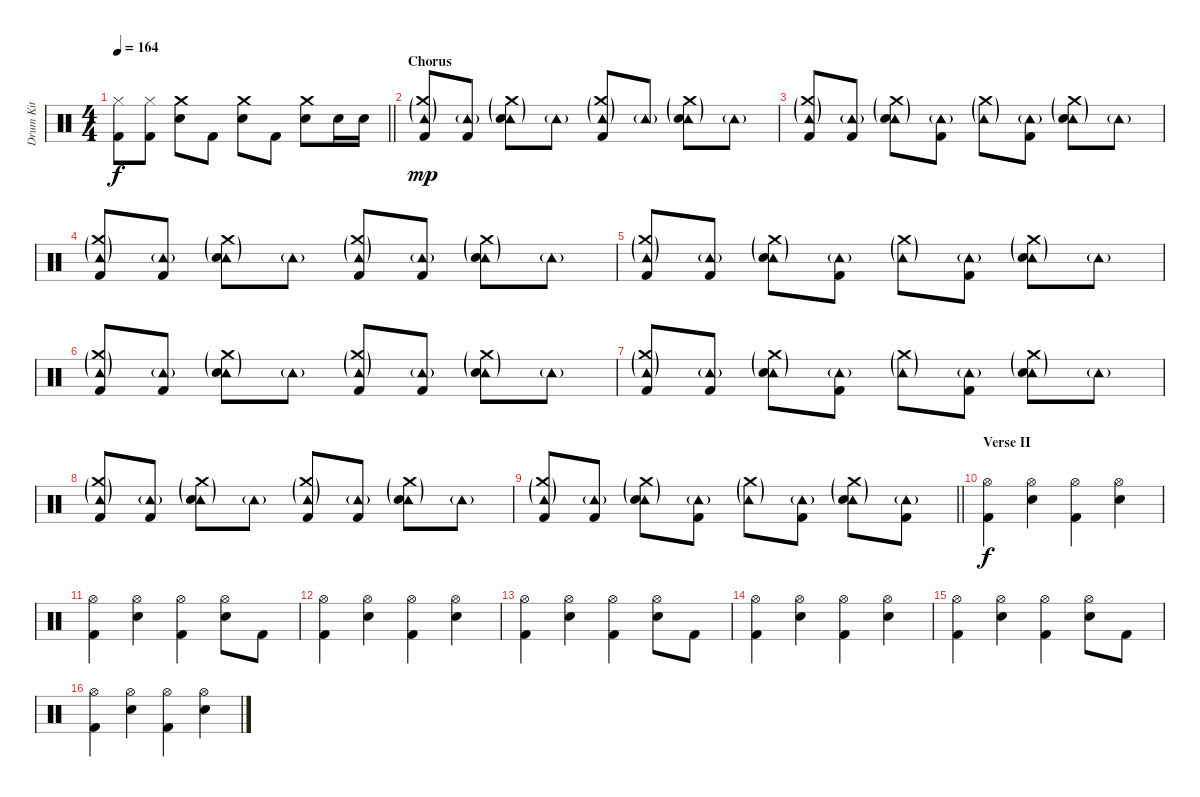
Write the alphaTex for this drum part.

\track ("Drum Kit" "Drum Kit") {instrument percussion}
\staff {score}
\articulation defaults
\ts (4 4)
\tempo 164
\clef neutral
\barLineRight lightlight
\ks c
("Hi-Hat (closed)" "Kick (hit) 2").8{dy f} ("Hi-Hat (closed)" "Kick (hit) 2").8 ("Crash medium (hit)" "Electric Snare (hit)").8 "Kick (hit) 2".8 ("Crash medium (hit)" "Electric Snare (hit)").8 "Kick (hit) 2".8 ("Crash medium (hit)" "Electric Snare (hit)").8 "Electric Snare (hit)".16 "Electric Snare (hit)".16 |
\section ("" "Chorus")
("Crash medium (hit)"{g} "Tambourine (hit)"{g} "Kick (hit) 2").8{dy mp} ("Tambourine (hit)"{g} "Kick (hit) 2").8 ("Crash medium (hit)"{g} "Tambourine (hit)"{g} "Electric Snare (hit)").8 "Tambourine (hit)"{g}.8 ("Crash medium (hit)"{g} "Tambourine (hit)"{g} "Kick (hit) 2").8 "Tambourine (hit)"{g}.8 ("Crash medium (hit)"{g} "Tambourine (hit)"{g} "Electric Snare (hit)").8 "Tambourine (hit)"{g}.8 |
("Crash medium (hit)"{g} "Tambourine (hit)"{g} "Kick (hit) 2").8 ("Tambourine (hit)"{g} "Kick (hit) 2").8 ("Crash medium (hit)"{g} "Tambourine (hit)"{g} "Electric Snare (hit)").8 ("Tambourine (hit)"{g} "Kick (hit) 2").8 ("Crash medium (hit)"{g} "Tambourine (hit)"{g}).8 ("Tambourine (hit)"{g} "Kick (hit) 2").8 ("Crash medium (hit)"{g} "Tambourine (hit)"{g} "Electric Snare (hit)").8 "Tambourine (hit)"{g}.8 |
("Crash medium (hit)"{g} "Tambourine (hit)"{g} "Kick (hit) 2").8 ("Tambourine (hit)"{g} "Kick (hit) 2").8 ("Crash medium (hit)"{g} "Tambourine (hit)"{g} "Electric Snare (hit)").8 "Tambourine (hit)"{g}.8 ("Crash medium (hit)"{g} "Tambourine (hit)"{g} "Kick (hit) 2").8 ("Tambourine (hit)"{g} "Kick (hit) 2").8 ("Crash medium (hit)"{g} "Tambourine (hit)"{g} "Electric Snare (hit)").8 "Tambourine (hit)"{g}.8 |
("Crash medium (hit)"{g} "Tambourine (hit)"{g} "Kick (hit) 2").8 ("Tambourine (hit)"{g} "Kick (hit) 2").8 ("Crash medium (hit)"{g} "Tambourine (hit)"{g} "Electric Snare (hit)").8 ("Tambourine (hit)"{g} "Kick (hit) 2").8 ("Crash medium (hit)"{g} "Tambourine (hit)"{g}).8 ("Tambourine (hit)"{g} "Kick (hit) 2").8 ("Crash medium (hit)"{g} "Tambourine (hit)"{g} "Electric Snare (hit)").8 "Tambourine (hit)"{g}.8 |
("Crash medium (hit)"{g} "Tambourine (hit)"{g} "Kick (hit) 2").8 ("Tambourine (hit)"{g} "Kick (hit) 2").8 ("Crash medium (hit)"{g} "Tambourine (hit)"{g} "Electric Snare (hit)").8 "Tambourine (hit)"{g}.8 ("Crash medium (hit)"{g} "Tambourine (hit)"{g} "Kick (hit) 2").8 ("Tambourine (hit)"{g} "Kick (hit) 2").8 ("Crash medium (hit)"{g} "Tambourine (hit)"{g} "Electric Snare (hit)").8 "Tambourine (hit)"{g}.8 |
("Crash medium (hit)"{g} "Tambourine (hit)"{g} "Kick (hit) 2").8 ("Tambourine (hit)"{g} "Kick (hit) 2").8 ("Crash medium (hit)"{g} "Tambourine (hit)"{g} "Electric Snare (hit)").8 ("Tambourine (hit)"{g} "Kick (hit) 2").8 ("Crash medium (hit)"{g} "Tambourine (hit)"{g}).8 ("Tambourine (hit)"{g} "Kick (hit) 2").8 ("Crash medium (hit)"{g} "Tambourine (hit)"{g} "Electric Snare (hit)").8 "Tambourine (hit)"{g}.8 |
("Crash medium (hit)"{g} "Tambourine (hit)"{g} "Kick (hit) 2").8 ("Tambourine (hit)"{g} "Kick (hit) 2").8 ("Crash medium (hit)"{g} "Tambourine (hit)"{g} "Electric Snare (hit)").8 "Tambourine (hit)"{g}.8 ("Crash medium (hit)"{g} "Tambourine (hit)"{g} "Kick (hit) 2").8 ("Tambourine (hit)"{g} "Kick (hit) 2").8 ("Crash medium (hit)"{g} "Tambourine (hit)"{g} "Electric Snare (hit)").8 "Tambourine (hit)"{g}.8 |
\barLineRight lightlight
("Crash medium (hit)"{g} "Tambourine (hit)"{g} "Kick (hit) 2").8 ("Tambourine (hit)"{g} "Kick (hit) 2").8 ("Crash medium (hit)"{g} "Tambourine (hit)"{g} "Electric Snare (hit)").8 ("Tambourine (hit)"{g} "Kick (hit) 2").8 ("Crash medium (hit)"{g} "Tambourine (hit)"{g}).8 ("Tambourine (hit)"{g} "Kick (hit) 2").8 ("Crash medium (hit)"{g} "Tambourine (hit)"{g} "Electric Snare (hit)").8 ("Tambourine (hit)"{g} "Kick (hit) 2").8 |
\section ("" "Verse II")
("Hi-Hat (open)" "Kick (hit) 2").4{dy f} ("Hi-Hat (open)" "Electric Snare (hit)").4 ("Hi-Hat (open)" "Kick (hit) 2").4 ("Hi-Hat (open)" "Electric Snare (hit)").4 |
("Hi-Hat (open)" "Kick (hit) 2").4 ("Hi-Hat (open)" "Electric Snare (hit)").4 ("Hi-Hat (open)" "Kick (hit) 2").4 ("Hi-Hat (open)" "Electric Snare (hit)").8 "Kick (hit) 2".8 |
("Hi-Hat (open)" "Kick (hit) 2").4 ("Hi-Hat (open)" "Electric Snare (hit)").4 ("Hi-Hat (open)" "Kick (hit) 2").4 ("Hi-Hat (open)" "Electric Snare (hit)").4 |
("Hi-Hat (open)" "Kick (hit) 2").4 ("Hi-Hat (open)" "Electric Snare (hit)").4 ("Hi-Hat (open)" "Kick (hit) 2").4 ("Hi-Hat (open)" "Electric Snare (hit)").8 "Kick (hit) 2".8 |
("Hi-Hat (open)" "Kick (hit) 2").4 ("Hi-Hat (open)" "Electric Snare (hit)").4 ("Hi-Hat (open)" "Kick (hit) 2").4 ("Hi-Hat (open)" "Electric Snare (hit)").4 |
("Hi-Hat (open)" "Kick (hit) 2").4 ("Hi-Hat (open)" "Electric Snare (hit)").4 ("Hi-Hat (open)" "Kick (hit) 2").4 ("Hi-Hat (open)" "Electric Snare (hit)").8 "Kick (hit) 2".8 |
("Hi-Hat (open)" "Kick (hit) 2").4 ("Hi-Hat (open)" "Electric Snare (hit)").4 ("Hi-Hat (open)" "Kick (hit) 2").4 ("Hi-Hat (open)" "Electric Snare (hit)").4
